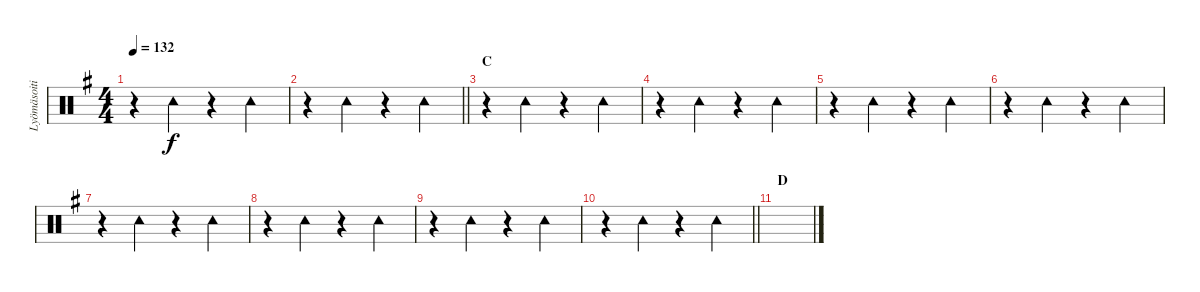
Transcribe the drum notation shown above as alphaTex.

\track ("Lyömäsoitin" "Lyömäsoiti") {instrument percussion}
\staff {score}
\articulation defaults
\ts (4 4)
\tempo 132
\clef neutral
\ks eminor
r.4{dy f} "Tambourine (hit)".4 r.4 "Tambourine (hit)".4 |
\barLineRight lightlight
r.4 "Tambourine (hit)".4 r.4 "Tambourine (hit)".4 |
\section ("" "C")
r.4 "Tambourine (hit)".4 r.4 "Tambourine (hit)".4 |
r.4 "Tambourine (hit)".4 r.4 "Tambourine (hit)".4 |
r.4 "Tambourine (hit)".4 r.4 "Tambourine (hit)".4 |
r.4 "Tambourine (hit)".4 r.4 "Tambourine (hit)".4 |
r.4 "Tambourine (hit)".4 r.4 "Tambourine (hit)".4 |
r.4 "Tambourine (hit)".4 r.4 "Tambourine (hit)".4 |
r.4 "Tambourine (hit)".4 r.4 "Tambourine (hit)".4 |
\barLineRight lightlight
r.4 "Tambourine (hit)".4 r.4 "Tambourine (hit)".4 |
\section ("" "D")
